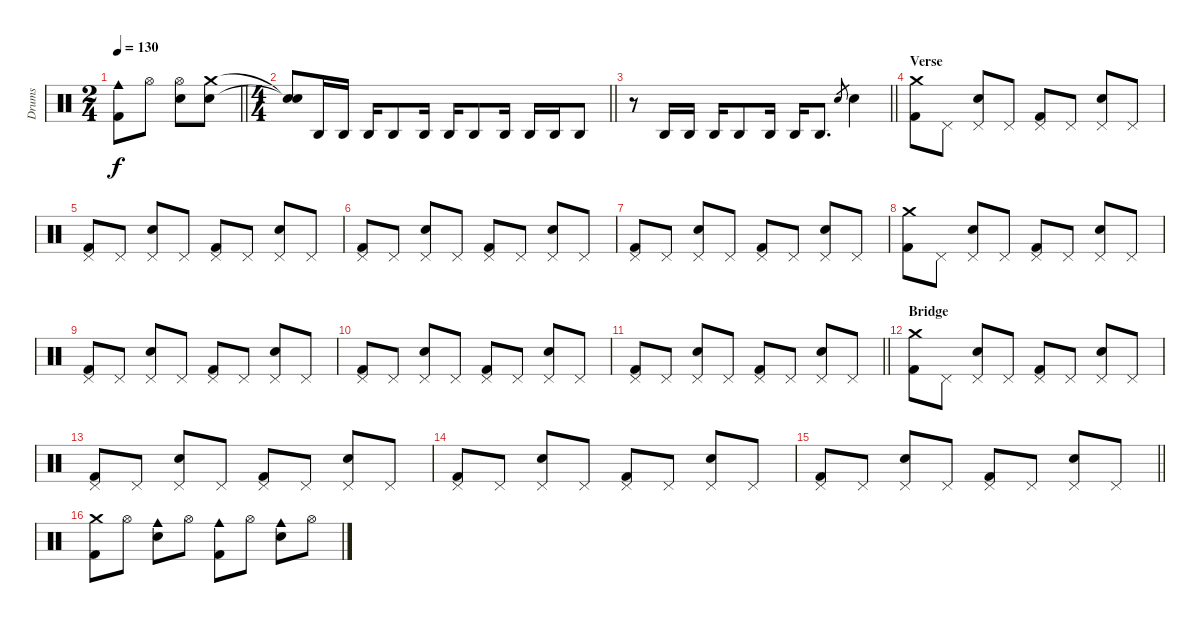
\track ("Drums" "Drums") {instrument percussion}
\staff {score}
\articulation defaults
\ts (2 4)
\tempo 130
\clef neutral
\barLineRight lightlight
\ks c
("Cowbell medium (hit)" "Kick (hit) 2").8{dy f} "Hi-Hat (open)".8 ("Hi-Hat (open)" "Snare (hit) 2").8 ("Crash medium (hit)" "Snare (hit) 2").8 |
\ts (4 4)
\barLineRight lightlight
("Snare (hit)"{t} "Snare (hit)"{t}).8 "Agogo high (hit)".16 "Agogo high (hit)".16 "Agogo high (hit)".16 "Agogo high (hit)".8 "Agogo high (hit)".16 "Agogo high (hit)".16 "Agogo high (hit)".8 "Agogo high (hit)".16 "Agogo high (hit)".16 "Agogo high (hit)".16 "Agogo high (hit)".8 |
\barLineRight lightlight
r.8 "Agogo high (hit)".16 "Agogo high (hit)".16 "Agogo high (hit)".16 "Agogo high (hit)".8 "Agogo high (hit)".16 "Agogo high (hit)".16 "Agogo high (hit)".8{d} "Snare (hit) 2".8{gr} "Snare (hit) 2".4 |
\section ("" "Verse")
("Crash medium (hit)" "Kick (hit) 2").8 "Pedal Hi-Hat (hit)".8 ("Pedal Hi-Hat (hit)" "Snare (hit) 2").8 "Pedal Hi-Hat (hit)".8 ("Pedal Hi-Hat (hit)" "Kick (hit) 2").8 "Pedal Hi-Hat (hit)".8 ("Pedal Hi-Hat (hit)" "Snare (hit) 2").8 "Pedal Hi-Hat (hit)".8 |
("Pedal Hi-Hat (hit)" "Kick (hit) 2").8 "Pedal Hi-Hat (hit)".8 ("Pedal Hi-Hat (hit)" "Snare (hit) 2").8 "Pedal Hi-Hat (hit)".8 ("Pedal Hi-Hat (hit)" "Kick (hit) 2").8 "Pedal Hi-Hat (hit)".8 ("Pedal Hi-Hat (hit)" "Snare (hit) 2").8 "Pedal Hi-Hat (hit)".8 |
("Pedal Hi-Hat (hit)" "Kick (hit) 2").8 "Pedal Hi-Hat (hit)".8 ("Pedal Hi-Hat (hit)" "Snare (hit) 2").8 "Pedal Hi-Hat (hit)".8 ("Pedal Hi-Hat (hit)" "Kick (hit) 2").8 "Pedal Hi-Hat (hit)".8 ("Pedal Hi-Hat (hit)" "Snare (hit) 2").8 "Pedal Hi-Hat (hit)".8 |
("Pedal Hi-Hat (hit)" "Kick (hit) 2").8 "Pedal Hi-Hat (hit)".8 ("Pedal Hi-Hat (hit)" "Snare (hit) 2").8 "Pedal Hi-Hat (hit)".8 ("Pedal Hi-Hat (hit)" "Kick (hit) 2").8 "Pedal Hi-Hat (hit)".8 ("Pedal Hi-Hat (hit)" "Snare (hit) 2").8 "Pedal Hi-Hat (hit)".8 |
("Crash medium (hit)" "Kick (hit) 2").8 "Pedal Hi-Hat (hit)".8 ("Pedal Hi-Hat (hit)" "Snare (hit) 2").8 "Pedal Hi-Hat (hit)".8 ("Pedal Hi-Hat (hit)" "Kick (hit) 2").8 "Pedal Hi-Hat (hit)".8 ("Pedal Hi-Hat (hit)" "Snare (hit) 2").8 "Pedal Hi-Hat (hit)".8 |
("Pedal Hi-Hat (hit)" "Kick (hit) 2").8 "Pedal Hi-Hat (hit)".8 ("Pedal Hi-Hat (hit)" "Snare (hit) 2").8 "Pedal Hi-Hat (hit)".8 ("Pedal Hi-Hat (hit)" "Kick (hit) 2").8 "Pedal Hi-Hat (hit)".8 ("Pedal Hi-Hat (hit)" "Snare (hit) 2").8 "Pedal Hi-Hat (hit)".8 |
("Pedal Hi-Hat (hit)" "Kick (hit) 2").8 "Pedal Hi-Hat (hit)".8 ("Pedal Hi-Hat (hit)" "Snare (hit) 2").8 "Pedal Hi-Hat (hit)".8 ("Pedal Hi-Hat (hit)" "Kick (hit) 2").8 "Pedal Hi-Hat (hit)".8 ("Pedal Hi-Hat (hit)" "Snare (hit) 2").8 "Pedal Hi-Hat (hit)".8 |
\barLineRight lightlight
("Pedal Hi-Hat (hit)" "Kick (hit) 2").8 "Pedal Hi-Hat (hit)".8 ("Pedal Hi-Hat (hit)" "Snare (hit) 2").8 "Pedal Hi-Hat (hit)".8 ("Pedal Hi-Hat (hit)" "Kick (hit) 2").8 "Pedal Hi-Hat (hit)".8 ("Pedal Hi-Hat (hit)" "Snare (hit) 2").8 "Pedal Hi-Hat (hit)".8 |
\section ("" "Bridge")
("Crash medium (hit)" "Kick (hit) 2").8 "Pedal Hi-Hat (hit)".8 ("Pedal Hi-Hat (hit)" "Snare (hit) 2").8 "Pedal Hi-Hat (hit)".8 ("Pedal Hi-Hat (hit)" "Kick (hit) 2").8 "Pedal Hi-Hat (hit)".8 ("Pedal Hi-Hat (hit)" "Snare (hit) 2").8 "Pedal Hi-Hat (hit)".8 |
("Pedal Hi-Hat (hit)" "Kick (hit) 2").8 "Pedal Hi-Hat (hit)".8 ("Pedal Hi-Hat (hit)" "Snare (hit) 2").8 "Pedal Hi-Hat (hit)".8 ("Pedal Hi-Hat (hit)" "Kick (hit) 2").8 "Pedal Hi-Hat (hit)".8 ("Pedal Hi-Hat (hit)" "Snare (hit) 2").8 "Pedal Hi-Hat (hit)".8 |
("Pedal Hi-Hat (hit)" "Kick (hit) 2").8 "Pedal Hi-Hat (hit)".8 ("Pedal Hi-Hat (hit)" "Snare (hit) 2").8 "Pedal Hi-Hat (hit)".8 ("Pedal Hi-Hat (hit)" "Kick (hit) 2").8 "Pedal Hi-Hat (hit)".8 ("Pedal Hi-Hat (hit)" "Snare (hit) 2").8 "Pedal Hi-Hat (hit)".8 |
\barLineRight lightlight
("Pedal Hi-Hat (hit)" "Kick (hit) 2").8 "Pedal Hi-Hat (hit)".8 ("Pedal Hi-Hat (hit)" "Snare (hit) 2").8 "Pedal Hi-Hat (hit)".8 ("Pedal Hi-Hat (hit)" "Kick (hit) 2").8 "Pedal Hi-Hat (hit)".8 ("Pedal Hi-Hat (hit)" "Snare (hit) 2").8 "Pedal Hi-Hat (hit)".8 |
("Crash medium (hit)" "Kick (hit) 2").8 "Hi-Hat (open)".8 ("Cowbell medium (hit)" "Snare (hit) 2").8 "Hi-Hat (open)".8 ("Cowbell medium (hit)" "Kick (hit) 2").8 "Hi-Hat (open)".8 ("Cowbell medium (hit)" "Snare (hit) 2").8 "Hi-Hat (open)".8
